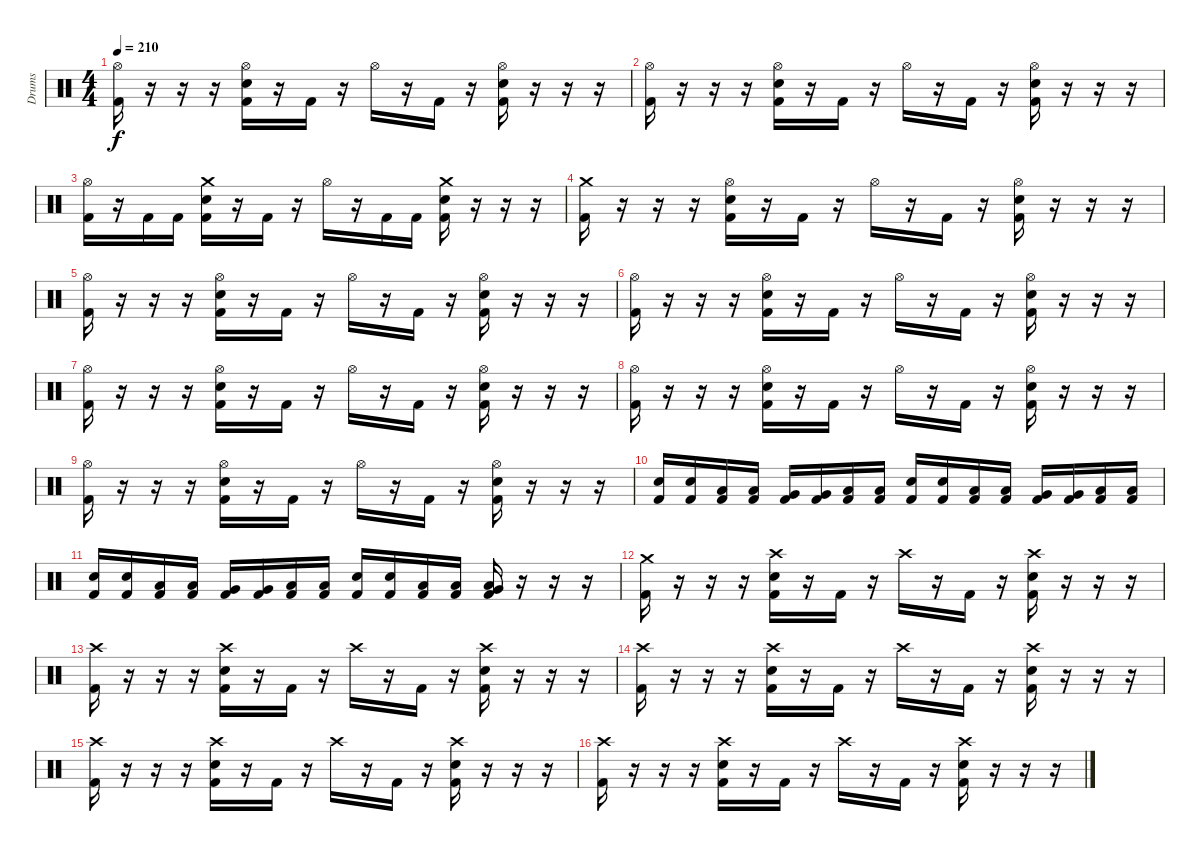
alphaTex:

\track ("Drums" "Drums") {instrument percussion}
\staff {score}
\articulation defaults
\ts (4 4)
\tempo 210
\clef neutral
\ks c
("Hi-Hat (open)" "Kick (hit) 2").16{dy f} r.16 r.16 r.16 ("Hi-Hat (open)" "Electric Snare (hit)" "Kick (hit) 2").16 r.16 "Kick (hit) 2".16 r.16 "Hi-Hat (open)".16 r.16 "Kick (hit) 2".16 r.16 ("Hi-Hat (open)" "Electric Snare (hit)" "Kick (hit) 2").16 r.16 r.16 r.16 |
("Hi-Hat (open)" "Kick (hit) 2").16 r.16 r.16 r.16 ("Hi-Hat (open)" "Electric Snare (hit)" "Kick (hit) 2").16 r.16 "Kick (hit) 2".16 r.16 "Hi-Hat (open)".16 r.16 "Kick (hit) 2".16 r.16 ("Hi-Hat (open)" "Electric Snare (hit)" "Kick (hit) 2").16 r.16 r.16 r.16 |
("Hi-Hat (open)" "Kick (hit) 2").16 r.16 "Kick (hit) 2".16 "Kick (hit) 2".16 ("Crash medium (hit)" "Electric Snare (hit)" "Kick (hit) 2").16 r.16 "Kick (hit) 2".16 r.16 "Hi-Hat (open)".16 r.16 "Kick (hit) 2".16 "Kick (hit) 2".16 ("Crash medium (hit)" "Electric Snare (hit)" "Kick (hit) 2").16 r.16 r.16 r.16 |
("Crash medium (hit)" "Kick (hit) 2").16 r.16 r.16 r.16 ("Hi-Hat (open)" "Electric Snare (hit)" "Kick (hit) 2").16 r.16 "Kick (hit) 2".16 r.16 "Hi-Hat (open)".16 r.16 "Kick (hit) 2".16 r.16 ("Hi-Hat (open)" "Electric Snare (hit)" "Kick (hit) 2").16 r.16 r.16 r.16 |
("Hi-Hat (open)" "Kick (hit) 2").16 r.16 r.16 r.16 ("Hi-Hat (open)" "Electric Snare (hit)" "Kick (hit) 2").16 r.16 "Kick (hit) 2".16 r.16 "Hi-Hat (open)".16 r.16 "Kick (hit) 2".16 r.16 ("Hi-Hat (open)" "Electric Snare (hit)" "Kick (hit) 2").16 r.16 r.16 r.16 |
("Hi-Hat (open)" "Kick (hit) 2").16 r.16 r.16 r.16 ("Hi-Hat (open)" "Electric Snare (hit)" "Kick (hit) 2").16 r.16 "Kick (hit) 2".16 r.16 "Hi-Hat (open)".16 r.16 "Kick (hit) 2".16 r.16 ("Hi-Hat (open)" "Electric Snare (hit)" "Kick (hit) 2").16 r.16 r.16 r.16 |
("Hi-Hat (open)" "Kick (hit) 2").16 r.16 r.16 r.16 ("Hi-Hat (open)" "Electric Snare (hit)" "Kick (hit) 2").16 r.16 "Kick (hit) 2".16 r.16 "Hi-Hat (open)".16 r.16 "Kick (hit) 2".16 r.16 ("Hi-Hat (open)" "Electric Snare (hit)" "Kick (hit) 2").16 r.16 r.16 r.16 |
("Hi-Hat (open)" "Kick (hit) 2").16 r.16 r.16 r.16 ("Hi-Hat (open)" "Electric Snare (hit)" "Kick (hit) 2").16 r.16 "Kick (hit) 2".16 r.16 "Hi-Hat (open)".16 r.16 "Kick (hit) 2".16 r.16 ("Hi-Hat (open)" "Electric Snare (hit)" "Kick (hit) 2").16 r.16 r.16 r.16 |
("Hi-Hat (open)" "Kick (hit) 2").16 r.16 r.16 r.16 ("Hi-Hat (open)" "Electric Snare (hit)" "Kick (hit) 2").16 r.16 "Kick (hit) 2".16 r.16 "Hi-Hat (open)".16 r.16 "Kick (hit) 2".16 r.16 ("Hi-Hat (open)" "Electric Snare (hit)" "Kick (hit) 2").16 r.16 r.16 r.16 |
("Electric Snare (hit)" "Kick (hit) 2").16 ("Electric Snare (hit)" "Kick (hit) 2").16 ("Low Tom (hit)" "Kick (hit) 2").16 ("Low Tom (hit)" "Kick (hit) 2").16 ("Very Low Tom (hit)" "Kick (hit) 2").16 ("Very Low Tom (hit)" "Kick (hit) 2").16 ("Low Floor Tom (hit)" "Kick (hit) 2").16 ("Low Floor Tom (hit)" "Kick (hit) 2").16 ("Electric Snare (hit)" "Kick (hit) 2").16 ("Electric Snare (hit)" "Kick (hit) 2").16 ("Low Tom (hit)" "Kick (hit) 2").16 ("Low Tom (hit)" "Kick (hit) 2").16 ("Very Low Tom (hit)" "Kick (hit) 2").16 ("Very Low Tom (hit)" "Kick (hit) 2").16 ("Low Floor Tom (hit)" "Kick (hit) 2").16 ("Low Floor Tom (hit)" "Kick (hit) 2").16 |
("Electric Snare (hit)" "Kick (hit) 2").16 ("Electric Snare (hit)" "Kick (hit) 2").16 ("Low Tom (hit)" "Kick (hit) 2").16 ("Low Tom (hit)" "Kick (hit) 2").16 ("Very Low Tom (hit)" "Kick (hit) 2").16 ("Very Low Tom (hit)" "Kick (hit) 2").16 ("Low Floor Tom (hit)" "Kick (hit) 2").16 ("Low Floor Tom (hit)" "Kick (hit) 2").16 ("Electric Snare (hit)" "Kick (hit) 2").16 ("Electric Snare (hit)" "Kick (hit) 2").16 ("Low Tom (hit)" "Kick (hit) 2").16 ("Low Tom (hit)" "Kick (hit) 2").16 ("Very Low Tom (hit)" "Low Floor Tom (hit)" "Kick (hit) 2").16 r.16 r.16 r.16 |
("Crash medium (hit)" "Kick (hit) 2").16{volume 16} r.16 r.16 r.16 ("Crash high (hit)" "Electric Snare (hit)" "Kick (hit) 2").16 r.16 "Kick (hit) 2".16 r.16 "Crash high (hit)".16 r.16 "Kick (hit) 2".16 r.16 ("Crash high (hit)" "Electric Snare (hit)" "Kick (hit) 2").16 r.16 r.16 r.16 |
("Crash high (hit)" "Kick (hit) 2").16 r.16 r.16 r.16 ("Crash high (hit)" "Electric Snare (hit)" "Kick (hit) 2").16 r.16 "Kick (hit) 2".16 r.16 "Crash high (hit)".16 r.16 "Kick (hit) 2".16 r.16 ("Crash high (hit)" "Electric Snare (hit)" "Kick (hit) 2").16 r.16 r.16 r.16 |
("Crash high (hit)" "Kick (hit) 2").16 r.16 r.16 r.16 ("Crash high (hit)" "Electric Snare (hit)" "Kick (hit) 2").16 r.16 "Kick (hit) 2".16 r.16 "Crash high (hit)".16 r.16 "Kick (hit) 2".16 r.16 ("Crash high (hit)" "Electric Snare (hit)" "Kick (hit) 2").16 r.16 r.16 r.16 |
("Crash high (hit)" "Kick (hit) 2").16 r.16 r.16 r.16 ("Crash high (hit)" "Electric Snare (hit)" "Kick (hit) 2").16 r.16 "Kick (hit) 2".16 r.16 "Crash high (hit)".16 r.16 "Kick (hit) 2".16 r.16 ("Crash high (hit)" "Electric Snare (hit)" "Kick (hit) 2").16 r.16 r.16 r.16 |
("Crash high (hit)" "Kick (hit) 2").16 r.16 r.16 r.16 ("Crash high (hit)" "Electric Snare (hit)" "Kick (hit) 2").16 r.16 "Kick (hit) 2".16 r.16 "Crash high (hit)".16 r.16 "Kick (hit) 2".16 r.16 ("Crash high (hit)" "Electric Snare (hit)" "Kick (hit) 2").16 r.16 r.16 r.16
